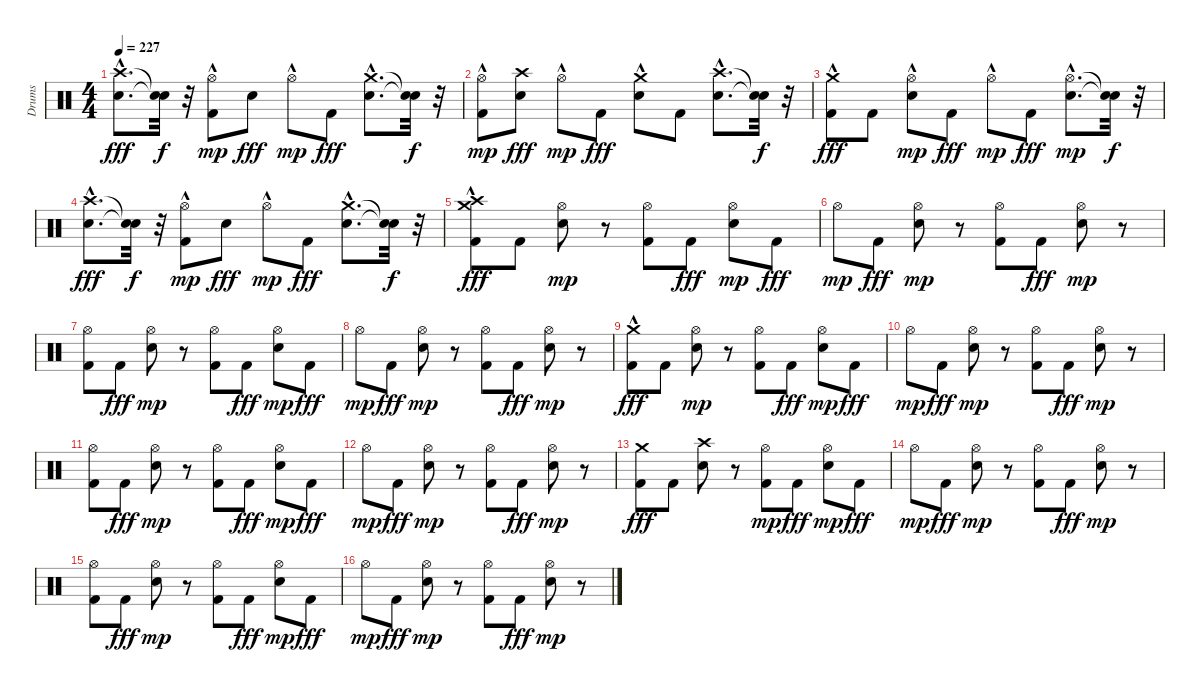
\track ("Drums" "Drums") {instrument percussion}
\staff {score}
\articulation defaults
\ts (4 4)
\tempo 227
\clef neutral
\ks c
("Snare (hit) 2"{hac} "Crash high (hit)"{hac}).8{d dy fff} ("Snare (hit)"{t} "Snare (hit)"{t}).32{dy f} r.32 ("Kick (hit) 2"{hac} "Hi-Hat (open)").8{dy mp} "Snare (hit) 2".8{dy fff} "Hi-Hat (open)"{hac}.8{dy mp} "Kick (hit) 2".8{dy fff} ("Snare (hit) 2"{hac} "Crash medium (hit)"{hac}).8{d} ("Snare (hit)"{t} "Snare (hit)"{t}).32{dy f} r.32 |
("Kick (hit) 2"{hac} "Hi-Hat (open)").8{dy mp} ("Snare (hit) 2" "Crash high (hit)").8{dy fff} "Hi-Hat (open)"{hac}.8{dy mp} "Kick (hit) 2".8{dy fff} ("Snare (hit) 2"{hac} "Crash medium (hit)"{hac}).8 "Kick (hit) 2".8 ("Snare (hit) 2"{hac} "Crash high (hit)"{hac}).8{d} ("Snare (hit)"{t} "Snare (hit)"{t}).32{dy f} r.32 |
("Crash medium (hit)"{hac} "Kick (hit) 2").8{dy fff} "Kick (hit) 2".8 ("Snare (hit) 2"{hac} "Hi-Hat (open)"{hac}).8{dy mp} "Kick (hit) 2".8{dy fff} "Hi-Hat (open)"{hac}.8{dy mp} "Kick (hit) 2".8{dy fff} ("Snare (hit) 2"{hac} "Hi-Hat (open)"{hac}).8{d dy mp} ("Snare (hit)"{t} "Snare (hit)"{t}).32{dy f} r.32 |
("Snare (hit) 2"{hac} "Crash high (hit)"{hac}).8{d dy fff} ("Snare (hit)"{t} "Snare (hit)"{t}).32{dy f} r.32 ("Kick (hit) 2"{hac} "Hi-Hat (open)").8{dy mp} "Snare (hit) 2".8{dy fff} "Hi-Hat (open)"{hac}.8{dy mp} "Kick (hit) 2".8{dy fff} ("Snare (hit) 2"{hac} "Crash medium (hit)"{hac}).8{d} ("Snare (hit)"{t} "Snare (hit)"{t}).32{dy f} r.32 |
("Kick (hit) 2" "Crash high (hit)"{hac} "Crash medium (hit)"{hac}).8{dy fff} "Kick (hit) 2".8 ("Snare (hit) 2" "Hi-Hat (open)").8{dy mp} r.8 ("Kick (hit) 2" "Hi-Hat (open)").8 "Kick (hit) 2".8{dy fff} ("Snare (hit) 2" "Hi-Hat (open)").8{dy mp} "Kick (hit) 2".8{dy fff} |
"Hi-Hat (open)".8{dy mp} "Kick (hit) 2".8{dy fff} ("Snare (hit) 2" "Hi-Hat (open)").8{dy mp} r.8 ("Kick (hit) 2" "Hi-Hat (open)").8 "Kick (hit) 2".8{dy fff} ("Snare (hit) 2" "Hi-Hat (open)").8{dy mp} r.8 |
("Kick (hit) 2" "Hi-Hat (open)").8 "Kick (hit) 2".8{dy fff} ("Snare (hit) 2" "Hi-Hat (open)").8{dy mp} r.8 ("Kick (hit) 2" "Hi-Hat (open)").8 "Kick (hit) 2".8{dy fff} ("Snare (hit) 2" "Hi-Hat (open)").8{dy mp} "Kick (hit) 2".8{dy fff} |
"Hi-Hat (open)".8{dy mp} "Kick (hit) 2".8{dy fff} ("Snare (hit) 2" "Hi-Hat (open)").8{dy mp} r.8 ("Kick (hit) 2" "Hi-Hat (open)").8 "Kick (hit) 2".8{dy fff} ("Snare (hit) 2" "Hi-Hat (open)").8{dy mp} r.8 |
("Kick (hit) 2" "Crash medium (hit)"{hac}).8{dy fff} "Kick (hit) 2".8 ("Snare (hit) 2" "Hi-Hat (open)").8{dy mp} r.8 ("Kick (hit) 2" "Hi-Hat (open)").8 "Kick (hit) 2".8{dy fff} ("Snare (hit) 2" "Hi-Hat (open)").8{dy mp} "Kick (hit) 2".8{dy fff} |
"Hi-Hat (open)".8{dy mp} "Kick (hit) 2".8{dy fff} ("Snare (hit) 2" "Hi-Hat (open)").8{dy mp} r.8 ("Kick (hit) 2" "Hi-Hat (open)").8 "Kick (hit) 2".8{dy fff} ("Snare (hit) 2" "Hi-Hat (open)").8{dy mp} r.8 |
("Kick (hit) 2" "Hi-Hat (open)").8 "Kick (hit) 2".8{dy fff} ("Snare (hit) 2" "Hi-Hat (open)").8{dy mp} r.8 ("Kick (hit) 2" "Hi-Hat (open)").8 "Kick (hit) 2".8{dy fff} ("Snare (hit) 2" "Hi-Hat (open)").8{dy mp} "Kick (hit) 2".8{dy fff} |
"Hi-Hat (open)".8{dy mp} "Kick (hit) 2".8{dy fff} ("Snare (hit) 2" "Hi-Hat (open)").8{dy mp} r.8 ("Kick (hit) 2" "Hi-Hat (open)").8 "Kick (hit) 2".8{dy fff} ("Snare (hit) 2" "Hi-Hat (open)").8{dy mp} r.8 |
("Kick (hit) 2" "Crash medium (hit)").8{dy fff} "Kick (hit) 2".8 ("Snare (hit) 2" "Crash high (hit)").8 r.8 ("Kick (hit) 2" "Hi-Hat (open)").8{dy mp} "Kick (hit) 2".8{dy fff} ("Snare (hit) 2" "Hi-Hat (open)").8{dy mp} "Kick (hit) 2".8{dy fff} |
"Hi-Hat (open)".8{dy mp} "Kick (hit) 2".8{dy fff} ("Snare (hit) 2" "Hi-Hat (open)").8{dy mp} r.8 ("Kick (hit) 2" "Hi-Hat (open)").8 "Kick (hit) 2".8{dy fff} ("Snare (hit) 2" "Hi-Hat (open)").8{dy mp} r.8 |
("Kick (hit) 2" "Hi-Hat (open)").8 "Kick (hit) 2".8{dy fff} ("Snare (hit) 2" "Hi-Hat (open)").8{dy mp} r.8 ("Kick (hit) 2" "Hi-Hat (open)").8 "Kick (hit) 2".8{dy fff} ("Snare (hit) 2" "Hi-Hat (open)").8{dy mp} "Kick (hit) 2".8{dy fff} |
"Hi-Hat (open)".8{dy mp} "Kick (hit) 2".8{dy fff} ("Snare (hit) 2" "Hi-Hat (open)").8{dy mp} r.8 ("Kick (hit) 2" "Hi-Hat (open)").8 "Kick (hit) 2".8{dy fff} ("Snare (hit) 2" "Hi-Hat (open)").8{dy mp} r.8
